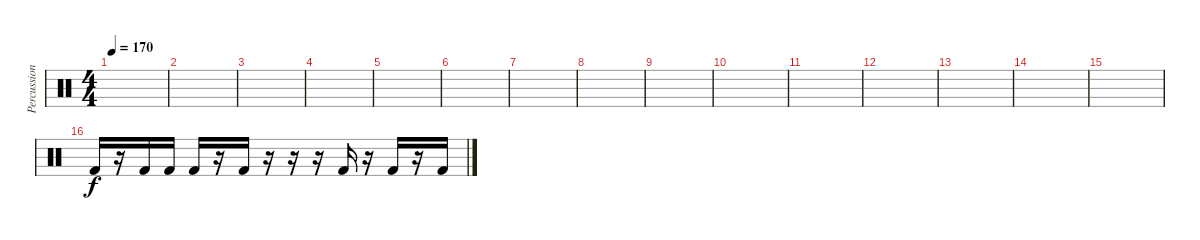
\track ("Percussion" "Percussion") {solo instrument percussion}
\staff {score}
\articulation defaults
\ts (4 4)
\tempo 170
\clef neutral
\ks c
|
|
|
|
|
|
|
|
|
|
|
|
|
|
|
"Kick (hit) 2".16 r.16 "Kick (hit) 2".16 "Kick (hit) 2".16 "Kick (hit) 2".16 r.16 "Kick (hit) 2".16 r.16 r.16 r.16 "Kick (hit) 2".16 r.16 "Kick (hit) 2".16 r.16 "Kick (hit) 2".16
